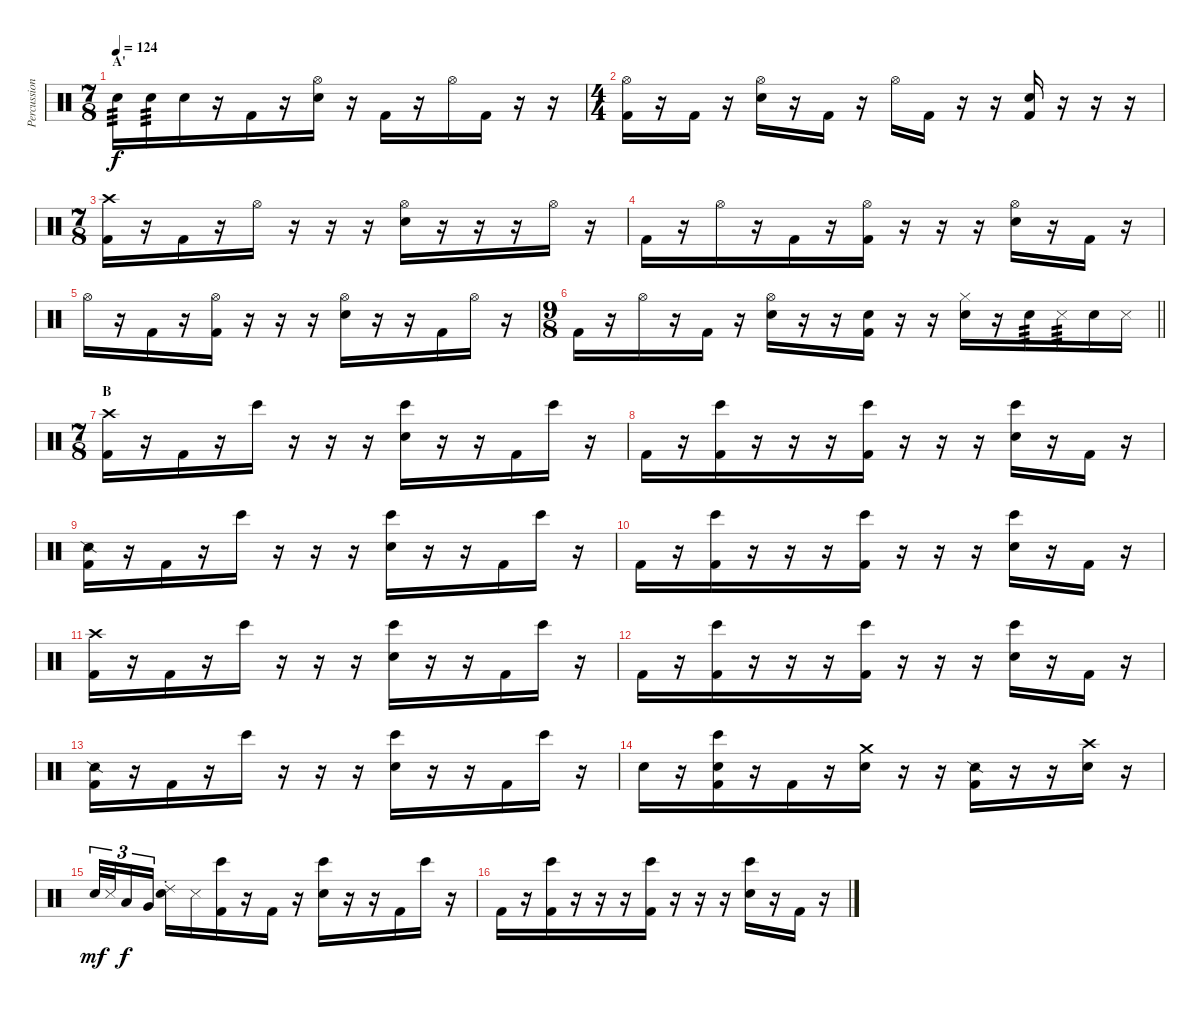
\track ("Percussion" "Percussion") {instrument percussion}
\staff {score}
\articulation defaults
\ts (7 8)
\section ("" "A'")
\tempo 124
\clef neutral
\ks c "Snare (hit)".16{tp 3 dy f} "Snare (hit)".16{tp 3} "Snare (hit)".16
r.16 "Kick (hit) 2".16 r.16 ("Hi-Hat (open)" "Snare (hit) 2").16 r.16 "Kick (hit) 2".16 r.16 "Hi-Hat (open)".16 "Kick (hit) 2".16 r.16 r.16 |
\ts (4 4)
("Hi-Hat (open)" "Kick (hit) 2").16 r.16 "Kick (hit) 2".16 r.16 ("Hi-Hat (open)" "Snare (hit) 2").16 r.16 "Kick (hit) 2".16 r.16 "Hi-Hat (open)".16 "Kick (hit) 2".16 r.16 r.16 ("Snare (hit)" "Kick (hit) 2").16 r.16 r.16 r.16 |
\ts (7 8)
("Crash high (hit)" "Kick (hit) 2").16 r.16 "Kick (hit) 2".16 r.16 "Hi-Hat (open)".16 r.16 r.16 r.16 ("Hi-Hat (open)" "Snare (hit) 2").16 r.16 r.16 r.16 "Hi-Hat (open)".16 r.16 |
"Kick (hit) 2".16 r.16 "Hi-Hat (open)".16 r.16 "Kick (hit) 2".16 r.16 ("Hi-Hat (open)" "Kick (hit) 2").16 r.16 r.16 r.16 ("Hi-Hat (open)" "Snare (hit) 2").16 r.16 "Kick (hit) 2".16 r.16 |
"Hi-Hat (open)".16 r.16 "Kick (hit) 2".16 r.16 ("Hi-Hat (open)" "Kick (hit) 2").16 r.16 r.16 r.16 ("Hi-Hat (open)" "Snare (hit) 2").16 r.16 r.16 "Kick (hit) 2".16 "Hi-Hat (open)".16 r.16 |
\ts (9 8)
\barLineRight lightlight "Kick (hit) 2".16
r.16 "Hi-Hat (open)".16 r.16 "Kick (hit) 2".16 r.16 ("Hi-Hat (open)" "Snare (hit) 2").16 r.16 r.16 ("Snare (hit)" "Kick (hit) 2").16 r.16 r.16 ("Hi-Hat (closed)" "Snare (hit) 2").16 r.16 "Snare (hit) 2".16{tp 3} "Metronome (hit)".16{tp 3} "Snare (hit) 2".16 "Metronome (hit)".16 |
\ts (7 8)
\section ("" "B")
("Crash high (hit)" "Kick (hit) 2").16 r.16 "Kick (hit) 2".16 r.16 "Bongo High (hit)".16 r.16 r.16 r.16 ("Bongo High (hit)" "Snare (hit) 2").16 r.16 r.16 "Kick (hit) 2".16 "Bongo High (hit)".16 r.16 |
"Kick (hit) 2".16 r.16 ("Bongo High (hit)" "Kick (hit) 2").16 r.16 r.16 r.16 ("Bongo High (hit)" "Kick (hit) 2").16 r.16 r.16 r.16 ("Bongo High (hit)" "Snare (hit) 2").16 r.16 "Kick (hit) 2".16 r.16 |
("Snare (side stick) 2" "Kick (hit) 2").16 r.16 "Kick (hit) 2".16 r.16 "Bongo High (hit)".16 r.16 r.16 r.16 ("Bongo High (hit)" "Snare (hit) 2").16 r.16 r.16 "Kick (hit) 2".16 "Bongo High (hit)".16 r.16 |
"Kick (hit) 2".16 r.16 ("Bongo High (hit)" "Kick (hit) 2").16 r.16 r.16 r.16 ("Bongo High (hit)" "Kick (hit) 2").16 r.16 r.16 r.16 ("Bongo High (hit)" "Snare (hit) 2").16 r.16 "Kick (hit) 2".16 r.16 |
("Crash high (hit)" "Kick (hit) 2").16 r.16 "Kick (hit) 2".16 r.16 "Bongo High (hit)".16 r.16 r.16 r.16 ("Bongo High (hit)" "Snare (hit) 2").16 r.16 r.16 "Kick (hit) 2".16 "Bongo High (hit)".16 r.16 |
"Kick (hit) 2".16 r.16 ("Bongo High (hit)" "Kick (hit) 2").16 r.16 r.16 r.16 ("Bongo High (hit)" "Kick (hit) 2").16 r.16 r.16 r.16 ("Bongo High (hit)" "Snare (hit) 2").16 r.16 "Kick (hit) 2".16 r.16 |
("Snare (side stick) 2" "Kick (hit) 2").16 r.16 "Kick (hit) 2".16 r.16 "Bongo High (hit)".16 r.16 r.16 r.16 ("Bongo High (hit)" "Snare (hit) 2").16 r.16 r.16 "Kick (hit) 2".16 "Bongo High (hit)".16 r.16 |
"Snare (hit) 2".16 r.16 ("Bongo High (hit)" "Snare (hit)" "Kick (hit) 2").16 r.16 "Kick (hit) 2".16 r.16 ("Crash medium (hit)" "Snare (hit) 2").16 r.16 r.16 ("Snare (side stick) 2" "Kick (hit) 2").16 r.16 r.16 ("Crash high (hit)" "Snare (hit) 2").16 r.16 |
"Snare (hit) 2".32{tu (3 2) dy mf} "Metronome (hit)".32{tu (3 2)} "Low Tom (hit)".16{tu (3 2) dy f} "Very Low Tom (hit)".16{tu (3 2)} ("Ride (choke) 2" "Snare (hit) 2").16 "Metronome (hit)".16 ("Bongo High (hit)" "Kick (hit) 2").16 r.16 "Kick (hit) 2".16 r.16 ("Bongo High (hit)" "Snare (hit) 2").16 r.16 r.16 "Kick (hit) 2".16 "Bongo High (hit)".16 r.16 |
"Kick (hit) 2".16 r.16 ("Bongo High (hit)" "Kick (hit) 2").16 r.16 r.16 r.16 ("Bongo High (hit)" "Kick (hit) 2").16 r.16 r.16 r.16 ("Bongo High (hit)" "Snare (hit) 2").16 r.16 "Kick (hit) 2".16 r.16
